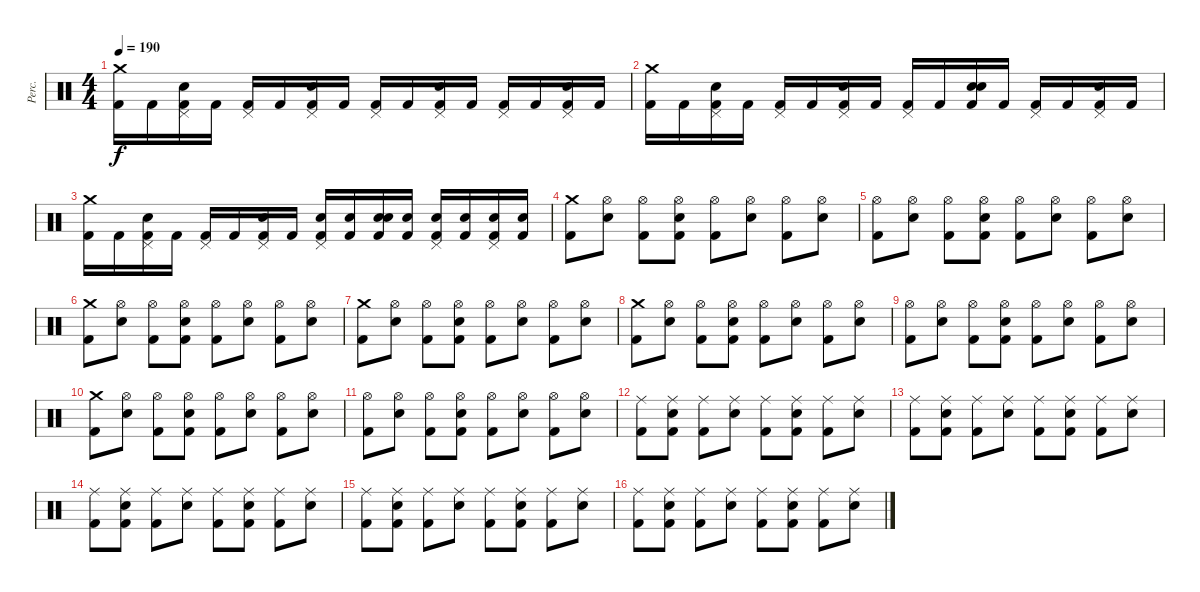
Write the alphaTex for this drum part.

\track ("Perc." "Perc.") {instrument percussion}
\staff {score}
\articulation defaults
\ts (4 4)
\tempo 190
\clef neutral
\ks c
("Crash medium (hit)" "Kick (hit) 2").16{dy f} "Kick (hit) 2".16 ("Snare (hit) 2" "Kick (hit) 2" "Pedal Hi-Hat (hit)").16 "Kick (hit) 2".16 ("Kick (hit) 2" "Pedal Hi-Hat (hit)").16 "Kick (hit) 2".16 ("Snare (hit) 2" "Kick (hit) 2" "Pedal Hi-Hat (hit)").16 "Kick (hit) 2".16 ("Kick (hit) 2" "Pedal Hi-Hat (hit)").16 "Kick (hit) 2".16 ("Snare (hit) 2" "Kick (hit) 2" "Pedal Hi-Hat (hit)").16 "Kick (hit) 2".16 ("Kick (hit) 2" "Pedal Hi-Hat (hit)").16 "Kick (hit) 2".16 ("Snare (hit) 2" "Kick (hit) 2" "Pedal Hi-Hat (hit)").16 "Kick (hit) 2".16 |
("Crash medium (hit)" "Kick (hit) 2").16 "Kick (hit) 2".16 ("Snare (hit) 2" "Kick (hit) 2" "Pedal Hi-Hat (hit)").16 "Kick (hit) 2".16 ("Kick (hit) 2" "Pedal Hi-Hat (hit)").16 "Kick (hit) 2".16 ("Snare (hit) 2" "Kick (hit) 2" "Pedal Hi-Hat (hit)").16 "Kick (hit) 2".16 ("Kick (hit) 2" "Pedal Hi-Hat (hit)").16 "Kick (hit) 2".16 ("Snare (hit) 2" "Kick (hit) 2" "Snare (hit)").16 "Kick (hit) 2".16 ("Kick (hit) 2" "Pedal Hi-Hat (hit)").16 "Kick (hit) 2".16 ("Snare (hit) 2" "Kick (hit) 2" "Pedal Hi-Hat (hit)").16 "Kick (hit) 2".16 |
("Crash medium (hit)" "Kick (hit) 2").16 "Kick (hit) 2".16 ("Snare (hit) 2" "Kick (hit) 2" "Pedal Hi-Hat (hit)").16 "Kick (hit) 2".16 ("Kick (hit) 2" "Pedal Hi-Hat (hit)").16 "Kick (hit) 2".16 ("Snare (hit) 2" "Kick (hit) 2" "Pedal Hi-Hat (hit)").16 "Kick (hit) 2".16 ("Snare (hit) 2" "Kick (hit) 2" "Pedal Hi-Hat (hit)").16 ("Snare (hit) 2" "Kick (hit) 2").16 ("Snare (hit) 2" "Kick (hit) 2" "Snare (hit)").16 ("Snare (hit) 2" "Kick (hit) 2").16 ("Snare (hit) 2" "Kick (hit) 2" "Pedal Hi-Hat (hit)").16 ("Snare (hit) 2" "Kick (hit) 2").16 ("Snare (hit) 2" "Kick (hit) 2" "Pedal Hi-Hat (hit)").16 ("Snare (hit) 2" "Kick (hit) 2").16 |
("Crash medium (hit)" "Kick (hit) 2").8 ("Hi-Hat (open)" "Snare (hit) 2").8 ("Hi-Hat (open)" "Kick (hit) 2").8 ("Hi-Hat (open)" "Snare (hit) 2" "Kick (hit) 2").8 ("Hi-Hat (open)" "Kick (hit) 2").8 ("Hi-Hat (open)" "Snare (hit) 2").8 ("Hi-Hat (open)" "Kick (hit) 2").8 ("Hi-Hat (open)" "Snare (hit) 2").8 |
("Hi-Hat (open)" "Kick (hit) 2").8 ("Hi-Hat (open)" "Snare (hit) 2").8 ("Hi-Hat (open)" "Kick (hit) 2").8 ("Hi-Hat (open)" "Snare (hit) 2" "Kick (hit) 2").8 ("Hi-Hat (open)" "Kick (hit) 2").8 ("Hi-Hat (open)" "Snare (hit) 2").8 ("Hi-Hat (open)" "Kick (hit) 2").8 ("Hi-Hat (open)" "Snare (hit) 2").8 |
("Crash medium (hit)" "Kick (hit) 2").8 ("Hi-Hat (open)" "Snare (hit) 2").8 ("Hi-Hat (open)" "Kick (hit) 2").8 ("Hi-Hat (open)" "Snare (hit) 2" "Kick (hit) 2").8 ("Hi-Hat (open)" "Kick (hit) 2").8 ("Hi-Hat (open)" "Snare (hit) 2").8 ("Hi-Hat (open)" "Kick (hit) 2").8 ("Hi-Hat (open)" "Snare (hit) 2").8 |
("Crash medium (hit)" "Kick (hit) 2").8 ("Hi-Hat (open)" "Snare (hit) 2").8 ("Hi-Hat (open)" "Kick (hit) 2").8 ("Hi-Hat (open)" "Snare (hit) 2" "Kick (hit) 2").8 ("Hi-Hat (open)" "Kick (hit) 2").8 ("Hi-Hat (open)" "Snare (hit) 2").8 ("Hi-Hat (open)" "Kick (hit) 2").8 ("Hi-Hat (open)" "Snare (hit) 2").8 |
("Crash medium (hit)" "Kick (hit) 2").8 ("Hi-Hat (open)" "Snare (hit) 2").8 ("Hi-Hat (open)" "Kick (hit) 2").8 ("Hi-Hat (open)" "Snare (hit) 2" "Kick (hit) 2").8 ("Hi-Hat (open)" "Kick (hit) 2").8 ("Hi-Hat (open)" "Snare (hit) 2").8 ("Hi-Hat (open)" "Kick (hit) 2").8 ("Hi-Hat (open)" "Snare (hit) 2").8 |
("Hi-Hat (open)" "Kick (hit) 2").8 ("Hi-Hat (open)" "Snare (hit) 2").8 ("Hi-Hat (open)" "Kick (hit) 2").8 ("Hi-Hat (open)" "Snare (hit) 2" "Kick (hit) 2").8 ("Hi-Hat (open)" "Kick (hit) 2").8 ("Hi-Hat (open)" "Snare (hit) 2").8 ("Hi-Hat (open)" "Kick (hit) 2").8 ("Hi-Hat (open)" "Snare (hit) 2").8 |
("Crash medium (hit)" "Kick (hit) 2").8 ("Hi-Hat (open)" "Snare (hit) 2").8 ("Hi-Hat (open)" "Kick (hit) 2").8 ("Hi-Hat (open)" "Snare (hit) 2" "Kick (hit) 2").8 ("Hi-Hat (open)" "Kick (hit) 2").8 ("Hi-Hat (open)" "Snare (hit) 2").8 ("Hi-Hat (open)" "Kick (hit) 2").8 ("Hi-Hat (open)" "Snare (hit) 2").8 |
("Hi-Hat (open)" "Kick (hit) 2").8 ("Hi-Hat (open)" "Snare (hit) 2").8 ("Hi-Hat (open)" "Kick (hit) 2").8 ("Hi-Hat (open)" "Snare (hit) 2" "Kick (hit) 2").8 ("Hi-Hat (open)" "Kick (hit) 2").8 ("Hi-Hat (open)" "Snare (hit) 2").8 ("Hi-Hat (open)" "Kick (hit) 2").8 ("Hi-Hat (open)" "Snare (hit) 2").8 |
("Kick (hit) 2" "Ride (middle)").8 ("Kick (hit) 2" "Snare (hit) 2" "Ride (middle)").8 ("Kick (hit) 2" "Ride (middle)").8 ("Snare (hit) 2" "Ride (middle)").8 ("Kick (hit) 2" "Ride (middle)").8 ("Kick (hit) 2" "Snare (hit) 2" "Ride (middle)").8 ("Kick (hit) 2" "Ride (middle)").8 ("Snare (hit) 2" "Ride (middle)").8 |
("Kick (hit) 2" "Ride (middle)").8 ("Kick (hit) 2" "Snare (hit) 2" "Ride (middle)").8 ("Kick (hit) 2" "Ride (middle)").8 ("Snare (hit) 2" "Ride (middle)").8 ("Kick (hit) 2" "Ride (middle)").8 ("Kick (hit) 2" "Snare (hit) 2" "Ride (middle)").8 ("Kick (hit) 2" "Ride (middle)").8 ("Snare (hit) 2" "Ride (middle)").8 |
("Kick (hit) 2" "Ride (middle)").8 ("Kick (hit) 2" "Snare (hit) 2" "Ride (middle)").8 ("Kick (hit) 2" "Ride (middle)").8 ("Snare (hit) 2" "Ride (middle)").8 ("Kick (hit) 2" "Ride (middle)").8 ("Kick (hit) 2" "Snare (hit) 2" "Ride (middle)").8 ("Kick (hit) 2" "Ride (middle)").8 ("Snare (hit) 2" "Ride (middle)").8 |
("Kick (hit) 2" "Ride (middle)").8 ("Kick (hit) 2" "Snare (hit) 2" "Ride (middle)").8 ("Kick (hit) 2" "Ride (middle)").8 ("Snare (hit) 2" "Ride (middle)").8 ("Kick (hit) 2" "Ride (middle)").8 ("Kick (hit) 2" "Snare (hit) 2" "Ride (middle)").8 ("Kick (hit) 2" "Ride (middle)").8 ("Snare (hit) 2" "Ride (middle)").8 |
("Kick (hit) 2" "Ride (middle)").8 ("Kick (hit) 2" "Snare (hit) 2" "Ride (middle)").8 ("Kick (hit) 2" "Ride (middle)").8 ("Snare (hit) 2" "Ride (middle)").8 ("Kick (hit) 2" "Ride (middle)").8 ("Kick (hit) 2" "Snare (hit) 2" "Ride (middle)").8 ("Kick (hit) 2" "Ride (middle)").8 ("Snare (hit) 2" "Ride (middle)").8
